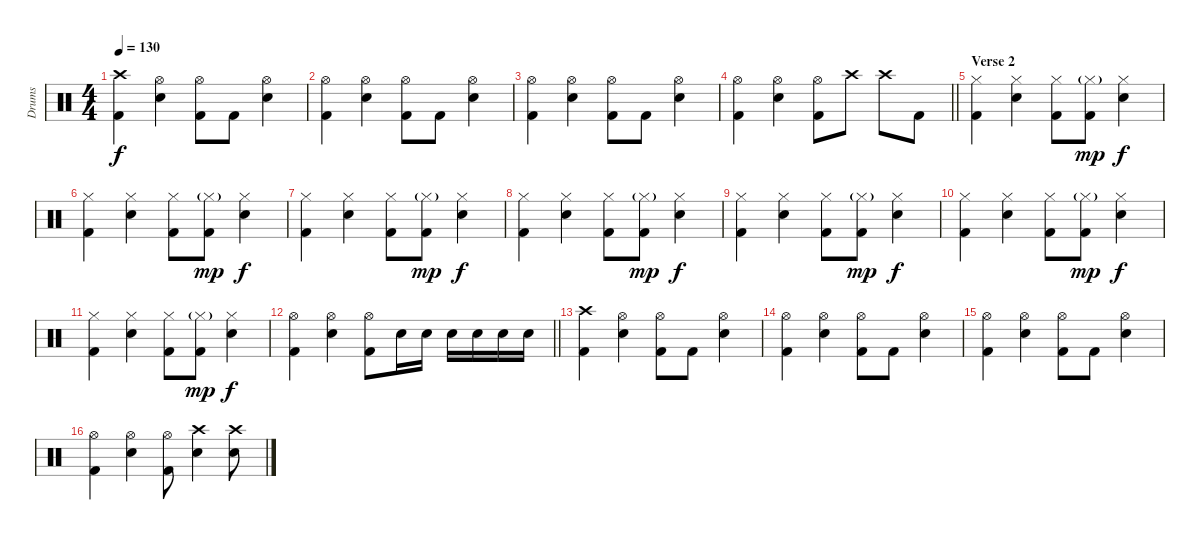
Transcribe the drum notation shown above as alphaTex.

\track ("Drums" "Drums") {instrument percussion}
\staff {score}
\articulation defaults
\ts (4 4)
\tempo 130
\clef neutral
\ks c
("Crash high (hit)" "Kick (hit) 2").4{dy f} ("Hi-Hat (open)" "Electric Snare (hit)").4 ("Hi-Hat (open)" "Kick (hit) 2").8 "Kick (hit) 2".8 ("Hi-Hat (open)" "Electric Snare (hit)").4 |
("Hi-Hat (open)" "Kick (hit) 2").4 ("Hi-Hat (open)" "Electric Snare (hit)").4 ("Hi-Hat (open)" "Kick (hit) 2").8 "Kick (hit) 2".8 ("Hi-Hat (open)" "Electric Snare (hit)").4 |
("Hi-Hat (open)" "Kick (hit) 2").4 ("Hi-Hat (open)" "Electric Snare (hit)").4 ("Hi-Hat (open)" "Kick (hit) 2").8 "Kick (hit) 2".8 ("Hi-Hat (open)" "Electric Snare (hit)").4 |
\barLineRight lightlight
("Hi-Hat (open)" "Kick (hit) 2").4 ("Hi-Hat (open)" "Electric Snare (hit)").4 ("Hi-Hat (open)" "Kick (hit) 2").8 "Crash high (hit)".8 "Crash high (hit)".8 "Kick (hit) 2".8 |
\section ("" "Verse 2")
("Hi-Hat (closed)" "Kick (hit) 2").4 ("Hi-Hat (closed)" "Electric Snare (hit)").4 ("Hi-Hat (closed)" "Kick (hit) 2").8 ("Hi-Hat (closed)"{g} "Kick (hit) 2").8{dy mp} ("Hi-Hat (closed)" "Electric Snare (hit)").4{dy f} |
("Hi-Hat (closed)" "Kick (hit) 2").4 ("Hi-Hat (closed)" "Electric Snare (hit)").4 ("Hi-Hat (closed)" "Kick (hit) 2").8 ("Hi-Hat (closed)"{g} "Kick (hit) 2").8{dy mp} ("Hi-Hat (closed)" "Electric Snare (hit)").4{dy f} |
("Hi-Hat (closed)" "Kick (hit) 2").4 ("Hi-Hat (closed)" "Electric Snare (hit)").4 ("Hi-Hat (closed)" "Kick (hit) 2").8 ("Hi-Hat (closed)"{g} "Kick (hit) 2").8{dy mp} ("Hi-Hat (closed)" "Electric Snare (hit)").4{dy f} |
("Hi-Hat (closed)" "Kick (hit) 2").4 ("Hi-Hat (closed)" "Electric Snare (hit)").4 ("Hi-Hat (closed)" "Kick (hit) 2").8 ("Hi-Hat (closed)"{g} "Kick (hit) 2").8{dy mp} ("Hi-Hat (closed)" "Electric Snare (hit)").4{dy f} |
("Hi-Hat (closed)" "Kick (hit) 2").4 ("Hi-Hat (closed)" "Electric Snare (hit)").4 ("Hi-Hat (closed)" "Kick (hit) 2").8 ("Hi-Hat (closed)"{g} "Kick (hit) 2").8{dy mp} ("Hi-Hat (closed)" "Electric Snare (hit)").4{dy f} |
("Hi-Hat (closed)" "Kick (hit) 2").4 ("Hi-Hat (closed)" "Electric Snare (hit)").4 ("Hi-Hat (closed)" "Kick (hit) 2").8 ("Hi-Hat (closed)"{g} "Kick (hit) 2").8{dy mp} ("Hi-Hat (closed)" "Electric Snare (hit)").4{dy f} |
("Hi-Hat (closed)" "Kick (hit) 2").4 ("Hi-Hat (closed)" "Electric Snare (hit)").4 ("Hi-Hat (closed)" "Kick (hit) 2").8 ("Hi-Hat (closed)"{g} "Kick (hit) 2").8{dy mp} ("Hi-Hat (closed)" "Electric Snare (hit)").4{dy f} |
\barLineRight lightlight
("Hi-Hat (open)" "Kick (hit) 2").4 ("Hi-Hat (open)" "Electric Snare (hit)").4 ("Hi-Hat (open)" "Kick (hit) 2").8 "Electric Snare (hit)".16 "Electric Snare (hit)".16 "Electric Snare (hit)".16 "Electric Snare (hit)".16 "Electric Snare (hit)".16 "Electric Snare (hit)".16 |
("Crash high (hit)" "Kick (hit) 2").4 ("Hi-Hat (open)" "Electric Snare (hit)").4 ("Hi-Hat (open)" "Kick (hit) 2").8 "Kick (hit) 2".8 ("Hi-Hat (open)" "Electric Snare (hit)").4 |
("Hi-Hat (open)" "Kick (hit) 2").4 ("Hi-Hat (open)" "Electric Snare (hit)").4 ("Hi-Hat (open)" "Kick (hit) 2").8 "Kick (hit) 2".8 ("Hi-Hat (open)" "Electric Snare (hit)").4 |
("Hi-Hat (open)" "Kick (hit) 2").4 ("Hi-Hat (open)" "Electric Snare (hit)").4 ("Hi-Hat (open)" "Kick (hit) 2").8 "Kick (hit) 2".8 ("Hi-Hat (open)" "Electric Snare (hit)").4 |
("Hi-Hat (open)" "Kick (hit) 2").4 ("Hi-Hat (open)" "Electric Snare (hit)").4 ("Hi-Hat (open)" "Kick (hit) 2").8 ("Crash high (hit)" "Electric Snare (hit)").4 ("Crash high (hit)" "Electric Snare (hit)").8
